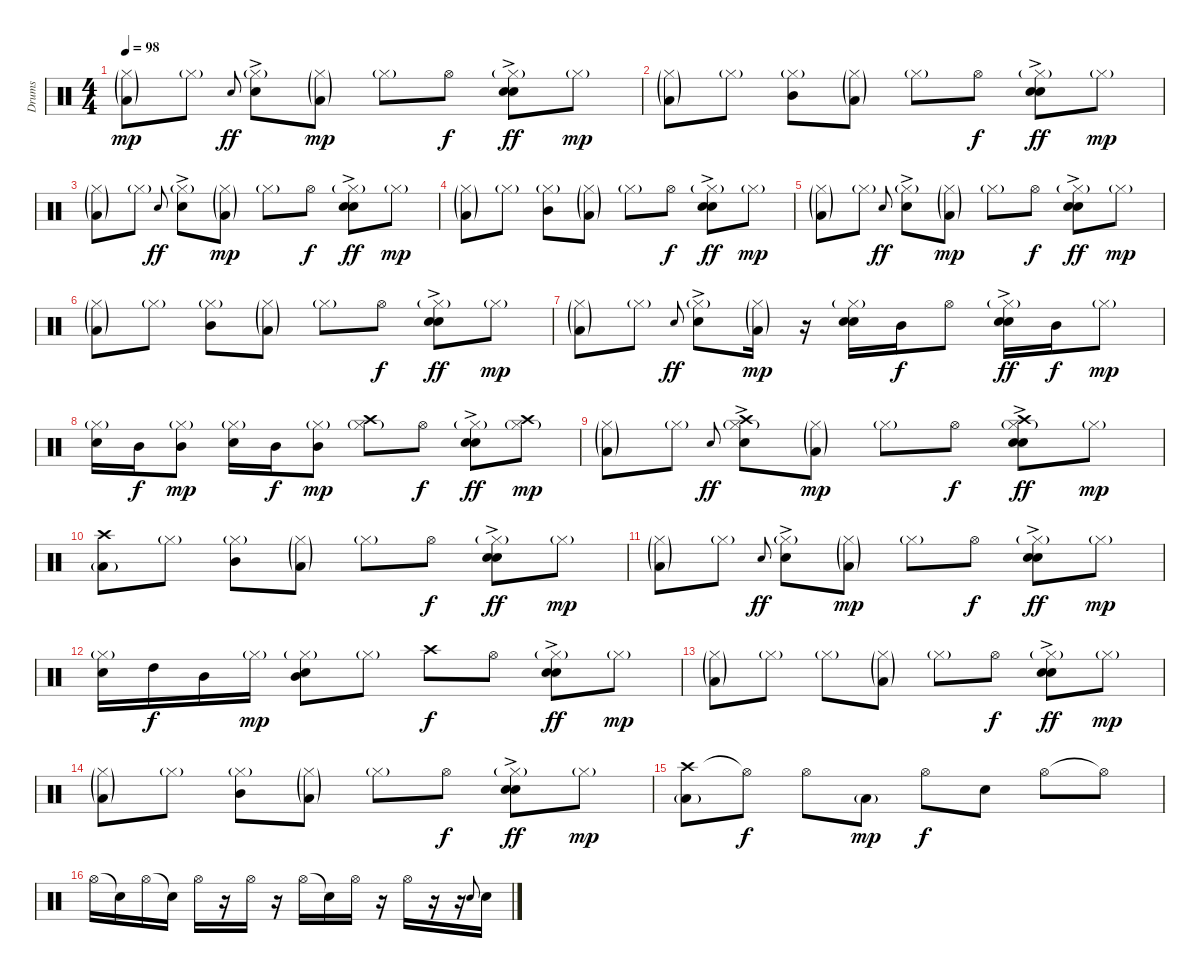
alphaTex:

\track ("Drums" "Drums") {instrument percussion}
\staff {score}
\articulation defaults
\ts (4 4)
\tempo 98
\clef neutral
\ks c
("Hi-Hat (closed)"{g} "Low Tom (hit)"{g}).8{dy mp} "Hi-Hat (closed)"{g}.8 "Snare (hit) 2".8{gr onbeat dy ff} ("Hi-Hat (closed)"{g} "Snare (hit) 2"{ac}).8 ("Hi-Hat (closed)"{g} "Low Tom (hit)"{g}).8{dy mp} "Hi-Hat (closed)"{g}.8 "Hi-Hat (open)".8{dy f} ("Hi-Hat (closed)"{g} "Snare (hit) 2"{ac} "Snare (hit) 2"{ac}).8{dy ff} "Hi-Hat (closed)"{g}.8{dy mp} |
("Hi-Hat (closed)"{g} "Low Tom (hit)"{g}).8 "Hi-Hat (closed)"{g}.8 ("Hi-Hat (closed)"{g} "Mid Tom (hit)").8 ("Hi-Hat (closed)"{g} "Low Tom (hit)"{g}).8 "Hi-Hat (closed)"{g}.8 "Hi-Hat (open)".8{dy f} ("Hi-Hat (closed)"{g} "Snare (hit) 2"{ac} "Snare (hit) 2"{ac}).8{dy ff} "Hi-Hat (closed)"{g}.8{dy mp} |
("Hi-Hat (closed)"{g} "Low Tom (hit)"{g}).8 "Hi-Hat (closed)"{g}.8 "Snare (hit) 2".8{gr onbeat dy ff} ("Hi-Hat (closed)"{g} "Snare (hit) 2"{ac}).8 ("Hi-Hat (closed)"{g} "Low Tom (hit)"{g}).8{dy mp} "Hi-Hat (closed)"{g}.8 "Hi-Hat (open)".8{dy f} ("Hi-Hat (closed)"{g} "Snare (hit) 2"{ac} "Snare (hit) 2"{ac}).8{dy ff} "Hi-Hat (closed)"{g}.8{dy mp} |
("Hi-Hat (closed)"{g} "Low Tom (hit)"{g}).8 "Hi-Hat (closed)"{g}.8 ("Hi-Hat (closed)"{g} "Mid Tom (hit)").8 ("Hi-Hat (closed)"{g} "Low Tom (hit)"{g}).8 "Hi-Hat (closed)"{g}.8 "Hi-Hat (open)".8{dy f} ("Hi-Hat (closed)"{g} "Snare (hit) 2"{ac} "Snare (hit) 2"{ac}).8{dy ff} "Hi-Hat (closed)"{g}.8{dy mp} |
("Hi-Hat (closed)"{g} "Low Tom (hit)"{g}).8 "Hi-Hat (closed)"{g}.8 "Snare (hit) 2".8{gr onbeat dy ff} ("Hi-Hat (closed)"{g} "Snare (hit) 2"{ac}).8 ("Hi-Hat (closed)"{g} "Low Tom (hit)"{g}).8{dy mp} "Hi-Hat (closed)"{g}.8 "Hi-Hat (open)".8{dy f} ("Hi-Hat (closed)"{g} "Snare (hit) 2"{ac} "Snare (hit) 2"{ac}).8{dy ff} "Hi-Hat (closed)"{g}.8{dy mp} |
("Hi-Hat (closed)"{g} "Low Tom (hit)"{g}).8 "Hi-Hat (closed)"{g}.8 ("Hi-Hat (closed)"{g} "Mid Tom (hit)").8 ("Hi-Hat (closed)"{g} "Low Tom (hit)"{g}).8 "Hi-Hat (closed)"{g}.8 "Hi-Hat (open)".8{dy f} ("Hi-Hat (closed)"{g} "Snare (hit) 2"{ac} "Snare (hit) 2"{ac}).8{dy ff} "Hi-Hat (closed)"{g}.8{dy mp} |
("Hi-Hat (closed)"{g} "Low Tom (hit)"{g}).8 "Hi-Hat (closed)"{g}.8 "Snare (hit) 2".8{gr onbeat dy ff} ("Hi-Hat (closed)"{g} "Snare (hit) 2"{ac}).8 ("Hi-Hat (closed)"{g} "Low Tom (hit)"{g}).16{dy mp} r.16 ("Hi-Hat (closed)"{g} "Snare (hit) 2" "Snare (hit) 2").16 "Mid Tom (hit)".16{dy f} "Hi-Hat (open)".8 ("Hi-Hat (closed)"{g} "Snare (hit) 2" "Snare (hit) 2"{ac}).16{dy ff} "Mid Tom (hit)".16{dy f} "Hi-Hat (closed)"{g}.8{dy mp} |
("Hi-Hat (closed)"{g} "Snare (hit) 2").16 "Mid Tom (hit)".16{dy f} ("Hi-Hat (closed)"{g} "Mid Tom (hit)").8{dy mp} ("Hi-Hat (closed)"{g} "Snare (hit) 2").16 "Mid Tom (hit)".16{dy f} ("Hi-Hat (closed)"{g} "Mid Tom (hit)").8{dy mp} ("Hi-Hat (closed)"{g} "Crash high (hit)").8 "Hi-Hat (open)".8{dy f} ("Hi-Hat (closed)"{g} "Snare (hit) 2"{ac} "Snare (hit) 2"{ac}).8{dy ff} ("Hi-Hat (closed)"{g} "Crash high (hit)").8{dy mp} |
("Hi-Hat (closed)"{g} "Low Tom (hit)"{g}).8 "Hi-Hat (closed)"{g}.8 "Snare (hit) 2".8{gr onbeat dy ff} ("Hi-Hat (closed)"{g} "Crash high (hit)" "Snare (hit) 2"{ac}).8 ("Hi-Hat (closed)"{g} "Low Tom (hit)"{g}).8{dy mp} "Hi-Hat (closed)"{g}.8 "Hi-Hat (open)".8{dy f} ("Hi-Hat (closed)"{g} "Crash high (hit)" "Snare (hit) 2"{ac} "Snare (hit) 2"{ac}).8{dy ff} "Hi-Hat (closed)"{g}.8{dy mp} |
("Crash high (hit)" "Low Tom (hit)"{g}).8 "Hi-Hat (closed)"{g}.8 ("Hi-Hat (closed)"{g} "Mid Tom (hit)").8 ("Hi-Hat (closed)"{g} "Low Tom (hit)"{g}).8 "Hi-Hat (closed)"{g}.8 "Hi-Hat (open)".8{dy f} ("Hi-Hat (closed)"{g} "Snare (hit) 2"{ac} "Snare (hit) 2"{ac}).8{dy ff} "Hi-Hat (closed)"{g}.8{dy mp} |
("Hi-Hat (closed)"{g} "Low Tom (hit)"{g}).8 "Hi-Hat (closed)"{g}.8 "Snare (hit) 2".8{gr onbeat dy ff} ("Hi-Hat (closed)"{g} "Snare (hit) 2"{ac}).8 ("Hi-Hat (closed)"{g} "Low Tom (hit)"{g}).8{dy mp} "Hi-Hat (closed)"{g}.8 "Hi-Hat (open)".8{dy f} ("Hi-Hat (closed)"{g} "Snare (hit) 2"{ac} "Snare (hit) 2"{ac}).8{dy ff} "Hi-Hat (closed)"{g}.8{dy mp} |
("Hi-Hat (closed)"{g} "Snare (hit) 2").16 "High Tom (hit)".16{dy f} "Mid Tom (hit)".16 "Hi-Hat (closed)"{g}.16{dy mp} ("Hi-Hat (closed)"{g} "Mid Tom (hit)" "Snare (hit) 2").8 "Hi-Hat (closed)"{g}.8 "Crash high (hit)".8{dy f} "Hi-Hat (open)".8 ("Hi-Hat (closed)"{g} "Snare (hit) 2"{ac} "Snare (hit) 2"{ac}).8{dy ff} "Hi-Hat (closed)"{g}.8{dy mp} |
("Hi-Hat (closed)"{g} "Low Tom (hit)"{g}).8 "Hi-Hat (closed)"{g}.8 "Hi-Hat (closed)"{g}.8 ("Hi-Hat (closed)"{g} "Low Tom (hit)"{g}).8 "Hi-Hat (closed)"{g}.8 "Hi-Hat (open)".8{dy f} ("Hi-Hat (closed)"{g} "Snare (hit) 2"{ac} "Snare (hit) 2"{ac}).8{dy ff} "Hi-Hat (closed)"{g}.8{dy mp} |
("Hi-Hat (closed)"{g} "Low Tom (hit)"{g}).8 "Hi-Hat (closed)"{g}.8 ("Hi-Hat (closed)"{g} "Mid Tom (hit)").8 ("Hi-Hat (closed)"{g} "Low Tom (hit)"{g}).8 "Hi-Hat (closed)"{g}.8 "Hi-Hat (open)".8{dy f} ("Hi-Hat (closed)"{g} "Snare (hit) 2"{ac} "Snare (hit) 2"{ac}).8{dy ff} "Hi-Hat (closed)"{g}.8{dy mp} |
("Crash high (hit)" "Low Tom (hit)"{g}).8 "Hi-Hat (open)"{t}.8{dy f} "Hi-Hat (open)".8 "Low Tom (hit)"{g}.8{dy mp} "Hi-Hat (open)".8{dy f} "Snare (hit) 2".8 "Hi-Hat (open)".8 "Hi-Hat (open)"{t}.8 |
"Hi-Hat (open)".16 "Snare (hit)"{t}.16 "Hi-Hat (open)".16 "Snare (hit)"{t}.16 "Hi-Hat (open)".16 r.16 "Hi-Hat (open)".16 r.16 "Hi-Hat (open)".16 "Snare (hit)"{t}.16 "Hi-Hat (open)".16 r.16 "Hi-Hat (open)".16 r.16 r.16 "Snare (hit) 2".8{gr onbeat} "Snare (hit) 2".16
